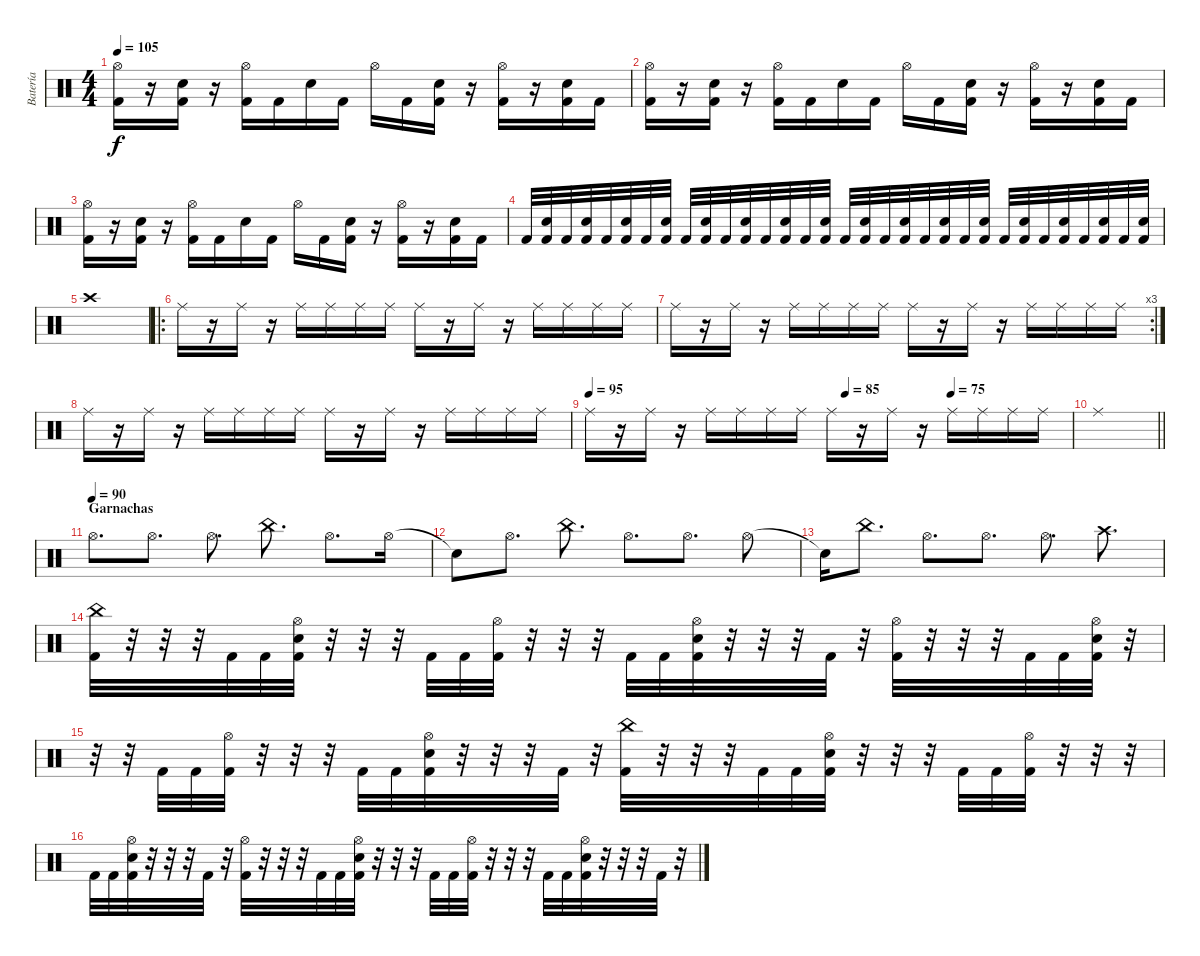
\track ("Batería" "Batería") {instrument percussion}
\staff {score}
\articulation defaults
\ts (4 4)
\tempo 105
\clef neutral
\ks c
("Hi-Hat (open)" "Kick (hit) 2").16{dy f} r.16 ("Snare (hit) 2" "Kick (hit) 2").16 r.16 ("Hi-Hat (open)" "Kick (hit) 2").16 "Kick (hit) 2".16 "Snare (hit) 2".16 "Kick (hit) 2".16 "Hi-Hat (open)".16 "Kick (hit) 2".16 ("Snare (hit) 2" "Kick (hit) 2").16 r.16 ("Hi-Hat (open)" "Kick (hit) 2").16 r.16 ("Snare (hit) 2" "Kick (hit) 2").16 "Kick (hit) 2".16 |
("Hi-Hat (open)" "Kick (hit) 2").16 r.16 ("Snare (hit) 2" "Kick (hit) 2").16 r.16 ("Hi-Hat (open)" "Kick (hit) 2").16 "Kick (hit) 2".16 "Snare (hit) 2".16 "Kick (hit) 2".16 "Hi-Hat (open)".16 "Kick (hit) 2".16 ("Snare (hit) 2" "Kick (hit) 2").16 r.16 ("Hi-Hat (open)" "Kick (hit) 2").16 r.16 ("Snare (hit) 2" "Kick (hit) 2").16 "Kick (hit) 2".16 |
("Hi-Hat (open)" "Kick (hit) 2").16 r.16 ("Snare (hit) 2" "Kick (hit) 2").16 r.16 ("Hi-Hat (open)" "Kick (hit) 2").16 "Kick (hit) 2".16 "Snare (hit) 2".16 "Kick (hit) 2".16 "Hi-Hat (open)".16 "Kick (hit) 2".16 ("Snare (hit) 2" "Kick (hit) 2").16 r.16 ("Hi-Hat (open)" "Kick (hit) 2").16 r.16 ("Snare (hit) 2" "Kick (hit) 2").16 "Kick (hit) 2".16 |
"Kick (hit) 2".32 ("Snare (hit) 2" "Kick (hit) 2").32 "Kick (hit) 2".32 ("Snare (hit) 2" "Kick (hit) 2").32 "Kick (hit) 2".32 ("Snare (hit) 2" "Kick (hit) 2").32 "Kick (hit) 2".32 ("Snare (hit) 2" "Kick (hit) 2").32 "Kick (hit) 2".32 ("Snare (hit) 2" "Kick (hit) 2").32 "Kick (hit) 2".32 ("Snare (hit) 2" "Kick (hit) 2").32 "Kick (hit) 2".32 ("Snare (hit) 2" "Kick (hit) 2").32 "Kick (hit) 2".32 ("Snare (hit) 2" "Kick (hit) 2").32 "Kick (hit) 2".32 ("Snare (hit) 2" "Kick (hit) 2").32 "Kick (hit) 2".32 ("Snare (hit) 2" "Kick (hit) 2").32 "Kick (hit) 2".32 ("Snare (hit) 2" "Kick (hit) 2").32 "Kick (hit) 2".32 ("Snare (hit) 2" "Kick (hit) 2").32 "Kick (hit) 2".32 ("Snare (hit) 2" "Kick (hit) 2").32 "Kick (hit) 2".32 ("Snare (hit) 2" "Kick (hit) 2").32 "Kick (hit) 2".32 ("Snare (hit) 2" "Kick (hit) 2").32 "Kick (hit) 2".32 ("Snare (hit) 2" "Kick (hit) 2").32 |
"Crash high (hit)".1 |
\ro "Ride (middle)".16
r.16 "Ride (middle)".16 r.16 "Ride (middle)".16 "Ride (middle)".16 "Ride (middle)".16 "Ride (middle)".16 "Ride (middle)".16 r.16 "Ride (middle)".16 r.16 "Ride (middle)".16 "Ride (middle)".16 "Ride (middle)".16 "Ride (middle)".16 |
\rc 3 "Ride (middle)".16
r.16 "Ride (middle)".16 r.16 "Ride (middle)".16 "Ride (middle)".16 "Ride (middle)".16 "Ride (middle)".16 "Ride (middle)".16 r.16 "Ride (middle)".16 r.16 "Ride (middle)".16 "Ride (middle)".16 "Ride (middle)".16 "Ride (middle)".16 |
"Ride (middle)".16 r.16 "Ride (middle)".16 r.16 "Ride (middle)".16 "Ride (middle)".16 "Ride (middle)".16 "Ride (middle)".16 "Ride (middle)".16 r.16 "Ride (middle)".16 r.16 "Ride (middle)".16 "Ride (middle)".16 "Ride (middle)".16 "Ride (middle)".16 |
\tempo 95
\tempo (85 0.53125)
\tempo (75 0.75)
"Ride (middle)".16 r.16 "Ride (middle)".16 r.16 "Ride (middle)".16 "Ride (middle)".16 "Ride (middle)".16 "Ride (middle)".16 "Ride (middle)".16 r.16 "Ride (middle)".16 r.16 "Ride (middle)".16 "Ride (middle)".16 "Ride (middle)".16 "Ride (middle)".16 |
\barLineRight lightlight "Ride (middle)".1
|
\section ("" "Garnachas")
\tempo (90)
"Hi-Hat (open)".8{d} "Hi-Hat (open)".8{d} "Hi-Hat (open)".8{d} "China (hit)".8{d} "Hi-Hat (open)".8{d} "Hi-Hat (open)".16 |
"Snare (hit)"{t}.8 "Hi-Hat (open)".8{d} "China (hit)".8{d} "Hi-Hat (open)".8{d} "Hi-Hat (open)".8{d} "Hi-Hat (open)".8 |
"Snare (hit)"{t}.16 "China (hit)".8{d} "Hi-Hat (open)".8{d} "Hi-Hat (open)".8{d} "Hi-Hat (open)".8{d} "Crash high (hit)".8{d} |
("China (hit)" "Kick (hit) 2").32 r.32 r.32 r.32 "Kick (hit) 2".32 "Kick (hit) 2".32 ("Hi-Hat (open)" "Snare (hit) 2" "Kick (hit) 2").32 r.32 r.32 r.32 "Kick (hit) 2".32 "Kick (hit) 2".32 ("Hi-Hat (open)" "Kick (hit) 2").32 r.32 r.32 r.32 "Kick (hit) 2".32 "Kick (hit) 2".32 ("Hi-Hat (open)" "Snare (hit) 2" "Kick (hit) 2").32 r.32 r.32 r.32 "Kick (hit) 2".32 r.32 ("Hi-Hat (open)" "Kick (hit) 2").32 r.32 r.32 r.32 "Kick (hit) 2".32 "Kick (hit) 2".32 ("Hi-Hat (open)" "Snare (hit) 2" "Kick (hit) 2").32 r.32 |
r.32 r.32 "Kick (hit) 2".32 "Kick (hit) 2".32 ("Hi-Hat (open)" "Kick (hit) 2").32 r.32 r.32 r.32 "Kick (hit) 2".32 "Kick (hit) 2".32 ("Hi-Hat (open)" "Snare (hit) 2" "Kick (hit) 2").32 r.32 r.32 r.32 "Kick (hit) 2".32 r.32 ("China (hit)" "Kick (hit) 2").32 r.32 r.32 r.32 "Kick (hit) 2".32 "Kick (hit) 2".32 ("Hi-Hat (open)" "Snare (hit) 2" "Kick (hit) 2").32 r.32 r.32 r.32 "Kick (hit) 2".32 "Kick (hit) 2".32 ("Hi-Hat (open)" "Kick (hit) 2").32 r.32 r.32 r.32 |
"Kick (hit) 2".32 "Kick (hit) 2".32 ("Hi-Hat (open)" "Snare (hit) 2" "Kick (hit) 2").32 r.32 r.32 r.32 "Kick (hit) 2".32 r.32 ("Hi-Hat (open)" "Kick (hit) 2").32 r.32 r.32 r.32 "Kick (hit) 2".32 "Kick (hit) 2".32 ("Hi-Hat (open)" "Snare (hit) 2" "Kick (hit) 2").32 r.32 r.32 r.32 "Kick (hit) 2".32 "Kick (hit) 2".32 ("Hi-Hat (open)" "Kick (hit) 2").32 r.32 r.32 r.32 "Kick (hit) 2".32 "Kick (hit) 2".32 ("Hi-Hat (open)" "Snare (hit) 2" "Kick (hit) 2").32 r.32 r.32 r.32 "Kick (hit) 2".32 r.32
